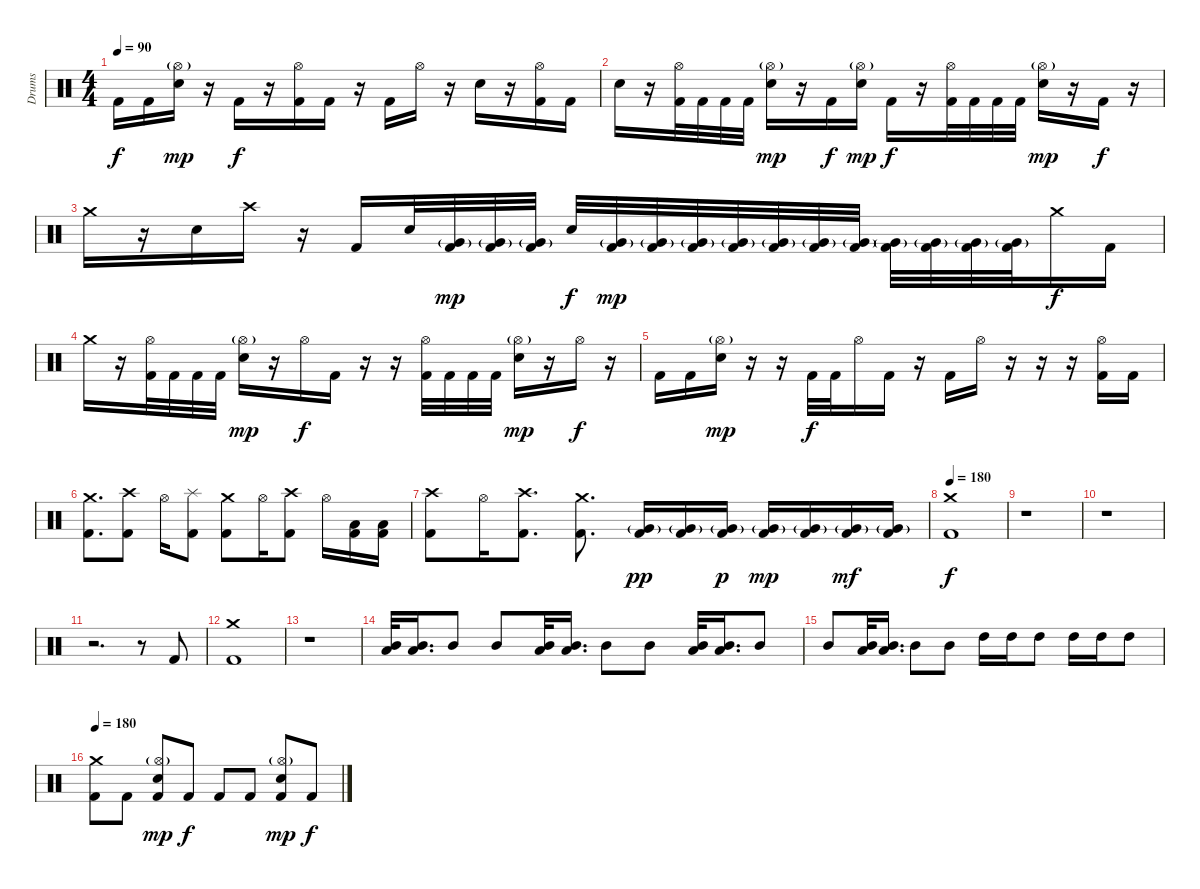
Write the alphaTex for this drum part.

\track ("Drums" "Drums") {instrument percussion}
\staff {score}
\articulation defaults
\ts (4 4)
\tempo 90
\clef neutral
\ks c "Kick (hit) 2".16{dy f} "Kick (hit) 2".16
("Hi-Hat (open)"{g} "Electric Snare (hit)").16{dy mp} r.16 "Kick (hit) 2".16{dy f} r.16 ("Hi-Hat (open)" "Kick (hit) 2").16 "Kick (hit) 2".16 r.16 "Kick (hit) 2".16 "Hi-Hat (open)".16 r.16 "Electric Snare (hit)".16 r.16 ("Hi-Hat (open)" "Kick (hit) 2").16 "Kick (hit) 2".16 |
"Electric Snare (hit)".16 r.16 ("Hi-Hat (open)" "Kick (hit) 2").32 "Kick (hit) 2".32 "Kick (hit) 2".32 "Kick (hit) 2".32 ("Hi-Hat (open)"{g} "Electric Snare (hit)").16{dy mp} r.16 "Kick (hit) 2".16{dy f} ("Hi-Hat (open)"{g} "Electric Snare (hit)").16{dy mp} "Kick (hit) 2".16{dy f} r.16 ("Hi-Hat (open)" "Kick (hit) 2").32 "Kick (hit) 2".32 "Kick (hit) 2".32 "Kick (hit) 2".32 ("Hi-Hat (open)"{g} "Electric Snare (hit)").16{dy mp} r.16 "Kick (hit) 2".16{dy f} r.16 |
"Crash medium (hit)".16 r.16 "Electric Snare (hit)".16 "Crash high (hit)".16 r.16 "Kick (hit) 2".16 "Electric Snare (hit)".32 ("Very Low Tom (hit)"{g} "Kick (hit) 2").32{dy mp} ("Very Low Tom (hit)"{g} "Kick (hit) 2").32 ("Very Low Tom (hit)"{g} "Kick (hit) 2").32 "Electric Snare (hit)".32{dy f} ("Very Low Tom (hit)"{g} "Kick (hit) 2").32{dy mp} ("Very Low Tom (hit)"{g} "Kick (hit) 2").32 ("Very Low Tom (hit)"{g} "Kick (hit) 2").32 ("Very Low Tom (hit)"{g} "Kick (hit) 2").32 ("Very Low Tom (hit)"{g} "Kick (hit) 2").32 ("Very Low Tom (hit)"{g} "Kick (hit) 2").32 ("Very Low Tom (hit)"{g} "Kick (hit) 2").32 ("Very Low Tom (hit)"{g} "Kick (hit) 2").32 ("Very Low Tom (hit)"{g} "Kick (hit) 2").32 ("Very Low Tom (hit)"{g} "Kick (hit) 2").32 ("Very Low Tom (hit)"{g} "Kick (hit) 2").32 "Crash medium (hit)".16{dy f} "Kick (hit) 2".16 |
"Crash medium (hit)".16 r.16 ("Hi-Hat (open)" "Kick (hit) 2").32 "Kick (hit) 2".32 "Kick (hit) 2".32 "Kick (hit) 2".32 ("Hi-Hat (open)"{g} "Electric Snare (hit)").16{dy mp} r.16 "Hi-Hat (open)".16{dy f} "Kick (hit) 2".16 r.16 r.16 ("Hi-Hat (open)" "Kick (hit) 2").32 "Kick (hit) 2".32 "Kick (hit) 2".32 "Kick (hit) 2".32 ("Hi-Hat (open)"{g} "Electric Snare (hit)").16{dy mp} r.16 "Hi-Hat (open)".16{dy f} r.16 |
"Kick (hit) 2".16 "Kick (hit) 2".16 ("Hi-Hat (open)"{g} "Electric Snare (hit)").16{dy mp} r.16 r.16 "Kick (hit) 2".32{dy f} "Kick (hit) 2".32 "Hi-Hat (open)".16 "Kick (hit) 2".16 r.16 "Kick (hit) 2".16 "Hi-Hat (open)".16 r.16 r.16 r.16 ("Hi-Hat (open)" "Kick (hit) 2").16 "Kick (hit) 2".16 |
("Crash medium (hit)" "Kick (hit) 2").8{d} ("Crash high (hit)" "Kick (hit) 2").8 "Hi-Hat (open)".16 ("Splash (hit)" "Kick (hit) 2").8 ("Crash medium (hit)" "Kick (hit) 2").8 "Hi-Hat (open)".16 ("Crash high (hit)" "Kick (hit) 2").8 "Hi-Hat (open)".16 ("Low Tom (hit)" "Kick (hit) 2").16 ("Low Tom (hit)" "Kick (hit) 2").16 |
("Crash high (hit)" "Kick (hit) 2").8 "Hi-Hat (open)".16 ("Crash high (hit)" "Kick (hit) 2").8{d} ("Crash medium (hit)" "Kick (hit) 2").8{d} ("Very Low Tom (hit)"{g} "Kick (hit) 2").16{dy pp} ("Very Low Tom (hit)"{g} "Kick (hit) 2").16 ("Very Low Tom (hit)"{g} "Kick (hit) 2").16{dy p} ("Very Low Tom (hit)"{g} "Kick (hit) 2").16{dy mp} ("Very Low Tom (hit)"{g} "Kick (hit) 2").16 ("Very Low Tom (hit)"{g} "Kick (hit) 2").16{dy mf} ("Very Low Tom (hit)"{g} "Kick (hit) 2").16 |
\tempo 180
("Crash medium (hit)" "Kick (hit) 2").1{dy f} |
r.1 |
r.1 |
r.2{d} r.8 "Kick (hit) 2".8 |
("Crash medium (hit)" "Kick (hit) 2").1 |
r.1 |
("Low Tom (hit)" "Mid Tom (hit)").32 ("Low Tom (hit)" "Mid Tom (hit)").16{d} "Mid Tom (hit)".8 "Mid Tom (hit)".8 ("Low Tom (hit)" "Mid Tom (hit)").32 ("Low Tom (hit)" "Mid Tom (hit)").16{d} "Mid Tom (hit)".8 "Mid Tom (hit)".8 ("Low Tom (hit)" "Mid Tom (hit)").32 ("Low Tom (hit)" "Mid Tom (hit)").16{d} "Mid Tom (hit)".8 |
"Mid Tom (hit)".8 ("Low Tom (hit)" "Mid Tom (hit)").32 ("Low Tom (hit)" "Mid Tom (hit)").16{d} "Mid Tom (hit)".8 "Mid Tom (hit)".8 "High Tom (hit)".16 "High Tom (hit)".16 "High Tom (hit)".8 "High Tom (hit)".16 "High Tom (hit)".16 "High Tom (hit)".8 |
\tempo 180
("Crash medium (hit)" "Kick (hit) 2").8 "Kick (hit) 2".8 ("Hi-Hat (open)"{g} "Electric Snare (hit)" "Kick (hit) 2").8{dy mp} "Kick (hit) 2".8{dy f} "Kick (hit) 2".8 "Kick (hit) 2".8 ("Hi-Hat (open)"{g} "Electric Snare (hit)" "Kick (hit) 2").8{dy mp} "Kick (hit) 2".8{dy f}
